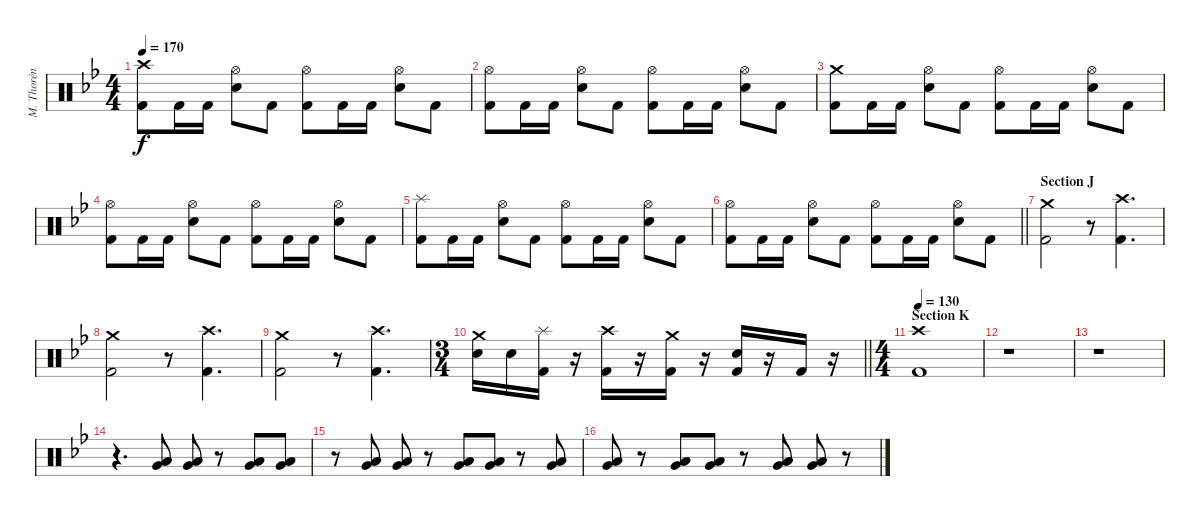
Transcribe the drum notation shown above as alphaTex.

\track ("M. Thorén (Drums)" "M. Thorén ") {instrument percussion}
\staff {score}
\articulation defaults
\ts (4 4)
\tempo 170
\clef neutral
\ks gminor
("Crash high (hit)" "Kick (hit) 2").8{dy f} "Kick (hit) 2".16 "Kick (hit) 2".16 ("Hi-Hat (open)" "Electric Snare (hit)").8 "Kick (hit) 2".8 ("Hi-Hat (open)" "Kick (hit) 2").8 "Kick (hit) 2".16 "Kick (hit) 2".16 ("Hi-Hat (open)" "Electric Snare (hit)").8 "Kick (hit) 2".8 |
("Hi-Hat (open)" "Kick (hit) 2").8 "Kick (hit) 2".16 "Kick (hit) 2".16 ("Hi-Hat (open)" "Electric Snare (hit)").8 "Kick (hit) 2".8 ("Hi-Hat (open)" "Kick (hit) 2").8 "Kick (hit) 2".16 "Kick (hit) 2".16 ("Hi-Hat (open)" "Electric Snare (hit)").8 "Kick (hit) 2".8 |
("Crash medium (hit)" "Kick (hit) 2").8 "Kick (hit) 2".16 "Kick (hit) 2".16 ("Hi-Hat (open)" "Electric Snare (hit)").8 "Kick (hit) 2".8 ("Hi-Hat (open)" "Kick (hit) 2").8 "Kick (hit) 2".16 "Kick (hit) 2".16 ("Hi-Hat (open)" "Electric Snare (hit)").8 "Kick (hit) 2".8 |
("Hi-Hat (open)" "Kick (hit) 2").8 "Kick (hit) 2".16 "Kick (hit) 2".16 ("Hi-Hat (open)" "Electric Snare (hit)").8 "Kick (hit) 2".8 ("Hi-Hat (open)" "Kick (hit) 2").8 "Kick (hit) 2".16 "Kick (hit) 2".16 ("Hi-Hat (open)" "Electric Snare (hit)").8 "Kick (hit) 2".8 |
("Splash (hit)" "Kick (hit) 2").8 "Kick (hit) 2".16 "Kick (hit) 2".16 ("Hi-Hat (open)" "Electric Snare (hit)").8 "Kick (hit) 2".8 ("Hi-Hat (open)" "Kick (hit) 2").8 "Kick (hit) 2".16 "Kick (hit) 2".16 ("Hi-Hat (open)" "Electric Snare (hit)").8 "Kick (hit) 2".8 |
\barLineRight lightlight
("Hi-Hat (open)" "Kick (hit) 2").8 "Kick (hit) 2".16 "Kick (hit) 2".16 ("Hi-Hat (open)" "Electric Snare (hit)").8 "Kick (hit) 2".8 ("Hi-Hat (open)" "Kick (hit) 2").8 "Kick (hit) 2".16 "Kick (hit) 2".16 ("Hi-Hat (open)" "Electric Snare (hit)").8 "Kick (hit) 2".8 |
\section ("" "Section J")
("Crash medium (hit)" "Kick (hit) 2").2 r.8 ("Crash high (hit)" "Kick (hit) 2").4{d} |
("Crash medium (hit)" "Kick (hit) 2").2 r.8 ("Crash high (hit)" "Kick (hit) 2").4{d} |
("Crash medium (hit)" "Kick (hit) 2").2 r.8 ("Crash high (hit)" "Kick (hit) 2").4{d} |
\ts (3 4)
\barLineRight lightlight
("Crash medium (hit)" "Electric Snare (hit)").16 "Electric Snare (hit)".16 ("Splash (hit)" "Kick (hit) 2").16 r.16 ("Crash high (hit)" "Kick (hit) 2").16 r.16 ("Crash medium (hit)" "Kick (hit) 2").16 r.16 ("Electric Snare (hit)" "Kick (hit) 2").16 r.16 "Kick (hit) 2".16 r.16 |
\ts (4 4)
\section ("" "Section K")
\tempo 130
("Crash high (hit)" "Kick (hit) 2").1 |
r.1 |
r.1 |
r.4{d} ("Very Low Tom (hit)" "Low Floor Tom (hit)").8 ("Very Low Tom (hit)" "Low Floor Tom (hit)").8 r.8 ("Very Low Tom (hit)" "Low Floor Tom (hit)").8 ("Very Low Tom (hit)" "Low Floor Tom (hit)").8 |
r.8 ("Very Low Tom (hit)" "Low Floor Tom (hit)").8 ("Very Low Tom (hit)" "Low Floor Tom (hit)").8 r.8 ("Very Low Tom (hit)" "Low Floor Tom (hit)").8 ("Very Low Tom (hit)" "Low Floor Tom (hit)").8 r.8 ("Very Low Tom (hit)" "Low Floor Tom (hit)").8 |
("Very Low Tom (hit)" "Low Floor Tom (hit)").8 r.8 ("Very Low Tom (hit)" "Low Floor Tom (hit)").8 ("Very Low Tom (hit)" "Low Floor Tom (hit)").8 r.8 ("Very Low Tom (hit)" "Low Floor Tom (hit)").8 ("Very Low Tom (hit)" "Low Floor Tom (hit)").8 r.8
